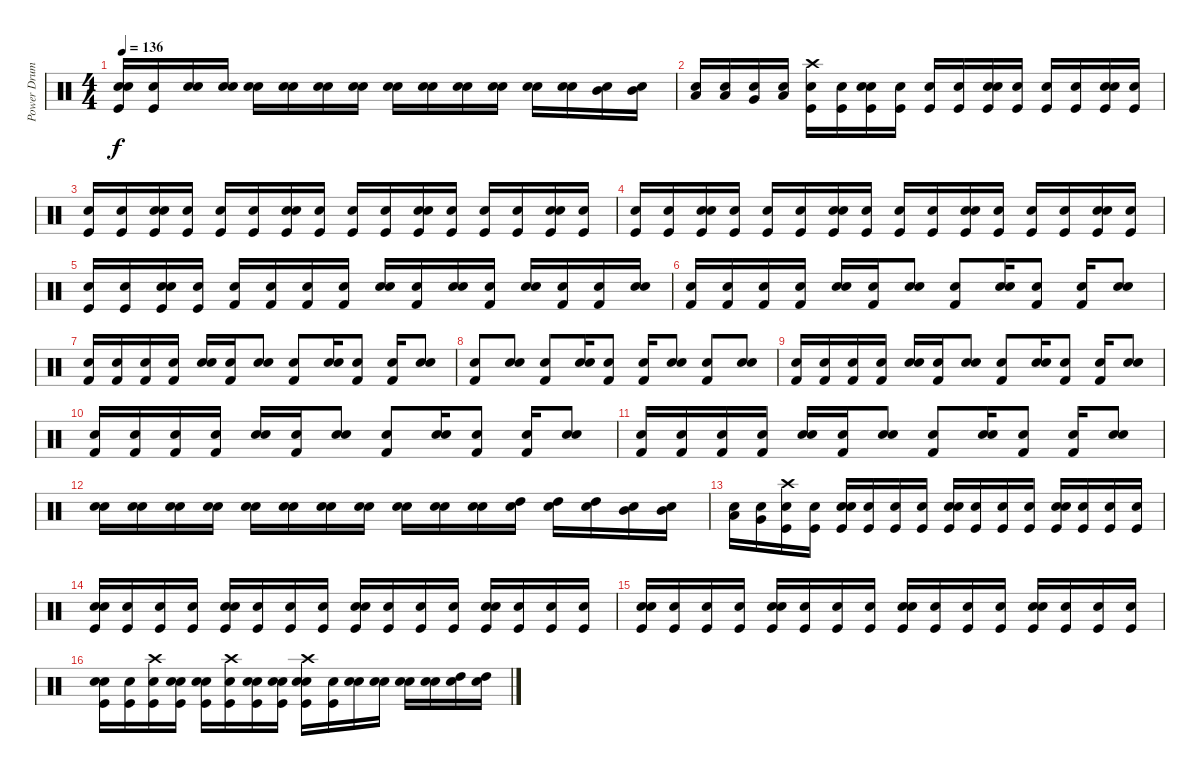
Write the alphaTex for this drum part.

\track ("Power Drums" "Power Drum") {instrument percussion}
\staff {score}
\articulation defaults
\ts (4 4)
\tempo 136
\clef neutral
\ks c
("Snare (hit)" "Kick (hit)" "Snare (hit) 2").16{dy f} ("Snare (hit)" "Kick (hit)").16 ("Snare (hit)" "Snare (hit) 2").16 ("Snare (hit)" "Snare (hit) 2").16 ("Snare (hit)" "Snare (hit) 2").16 ("Snare (hit)" "Snare (hit) 2").16 ("Snare (hit)" "Snare (hit) 2").16 ("Snare (hit)" "Snare (hit) 2").16 ("Snare (hit)" "Snare (hit) 2").16 ("Snare (hit)" "Snare (hit) 2").16 ("Snare (hit)" "Snare (hit) 2").16 ("Snare (hit)" "Snare (hit) 2").16 ("Snare (hit)" "Snare (hit) 2").16 ("Snare (hit)" "Snare (hit) 2").16 ("Snare (hit)" "Mid Tom (hit)").16 ("Snare (hit)" "Mid Tom (hit)").16 |
("Snare (hit)" "Low Tom (hit)").16 ("Snare (hit)" "Low Tom (hit)").16 ("Snare (hit)" "Very Low Tom (hit)").16 ("Snare (hit)" "Low Floor Tom (hit)").16 ("Snare (hit)" "Kick (hit)" "Crash high (hit)").16 ("Snare (hit)" "Kick (hit)").16 ("Snare (hit)" "Kick (hit)" "Snare (hit) 2").16 ("Snare (hit)" "Kick (hit)").16 ("Snare (hit)" "Kick (hit)").16 ("Snare (hit)" "Kick (hit)").16 ("Snare (hit)" "Kick (hit)" "Snare (hit) 2").16 ("Snare (hit)" "Kick (hit)").16 ("Snare (hit)" "Kick (hit)").16 ("Snare (hit)" "Kick (hit)").16 ("Snare (hit)" "Kick (hit)" "Snare (hit) 2").16 ("Snare (hit)" "Kick (hit)").16 |
("Snare (hit)" "Kick (hit)").16 ("Snare (hit)" "Kick (hit)").16 ("Snare (hit)" "Kick (hit)" "Snare (hit) 2").16 ("Snare (hit)" "Kick (hit)").16 ("Snare (hit)" "Kick (hit)").16 ("Snare (hit)" "Kick (hit)").16 ("Snare (hit)" "Kick (hit)" "Snare (hit) 2").16 ("Snare (hit)" "Kick (hit)").16 ("Snare (hit)" "Kick (hit)").16 ("Snare (hit)" "Kick (hit)").16 ("Snare (hit)" "Kick (hit)" "Snare (hit) 2").16 ("Snare (hit)" "Kick (hit)").16 ("Snare (hit)" "Kick (hit)").16 ("Snare (hit)" "Kick (hit)").16 ("Snare (hit)" "Kick (hit)" "Snare (hit) 2").16 ("Snare (hit)" "Kick (hit)").16 |
("Snare (hit)" "Kick (hit)").16 ("Snare (hit)" "Kick (hit)").16 ("Snare (hit)" "Kick (hit)" "Snare (hit) 2").16 ("Snare (hit)" "Kick (hit)").16 ("Snare (hit)" "Kick (hit)").16 ("Snare (hit)" "Kick (hit)").16 ("Snare (hit)" "Kick (hit)" "Snare (hit) 2").16 ("Snare (hit)" "Kick (hit)").16 ("Snare (hit)" "Kick (hit)").16 ("Snare (hit)" "Kick (hit)").16 ("Snare (hit)" "Kick (hit)" "Snare (hit) 2").16 ("Snare (hit)" "Kick (hit)").16 ("Snare (hit)" "Kick (hit)").16 ("Snare (hit)" "Kick (hit)").16 ("Snare (hit)" "Kick (hit)" "Snare (hit) 2").16 ("Snare (hit)" "Kick (hit)").16 |
("Snare (hit)" "Kick (hit)").16 ("Snare (hit)" "Kick (hit)").16 ("Snare (hit)" "Kick (hit)" "Snare (hit) 2").16 ("Snare (hit)" "Kick (hit)").16 ("Snare (hit)" "Kick (hit) 2").16 ("Snare (hit)" "Kick (hit) 2").16 ("Snare (hit)" "Kick (hit) 2").16 ("Snare (hit)" "Kick (hit) 2").16 ("Snare (hit)" "Snare (hit) 2").16 ("Snare (hit)" "Kick (hit) 2").16 ("Snare (hit)" "Snare (hit) 2").16 ("Snare (hit)" "Kick (hit) 2").16 ("Snare (hit)" "Snare (hit) 2").16 ("Snare (hit)" "Kick (hit) 2").16 ("Snare (hit)" "Kick (hit) 2").16 ("Snare (hit)" "Snare (hit) 2").16 |
("Snare (hit)" "Kick (hit) 2").16 ("Snare (hit)" "Kick (hit) 2").16 ("Snare (hit)" "Kick (hit) 2").16 ("Snare (hit)" "Kick (hit) 2").16 ("Snare (hit)" "Snare (hit) 2").16 ("Snare (hit)" "Kick (hit) 2").16 ("Snare (hit)" "Snare (hit) 2").8 ("Snare (hit)" "Kick (hit) 2").8 ("Snare (hit)" "Snare (hit) 2").16 ("Snare (hit)" "Kick (hit) 2").8 ("Snare (hit)" "Kick (hit) 2").16 ("Snare (hit)" "Snare (hit) 2").8 |
("Snare (hit)" "Kick (hit) 2").16 ("Snare (hit)" "Kick (hit) 2").16 ("Snare (hit)" "Kick (hit) 2").16 ("Snare (hit)" "Kick (hit) 2").16 ("Snare (hit)" "Snare (hit) 2").16 ("Snare (hit)" "Kick (hit) 2").16 ("Snare (hit)" "Snare (hit) 2").8 ("Snare (hit)" "Kick (hit) 2").8 ("Snare (hit)" "Snare (hit) 2").16 ("Snare (hit)" "Kick (hit) 2").8 ("Snare (hit)" "Kick (hit) 2").16 ("Snare (hit)" "Snare (hit) 2").8 |
("Snare (hit)" "Kick (hit) 2").8 ("Snare (hit)" "Snare (hit) 2").8 ("Snare (hit)" "Kick (hit) 2").8 ("Snare (hit)" "Snare (hit) 2").16 ("Snare (hit)" "Kick (hit) 2").8 ("Snare (hit)" "Kick (hit) 2").16 ("Snare (hit)" "Snare (hit) 2").8 ("Snare (hit)" "Kick (hit) 2").8 ("Snare (hit)" "Snare (hit) 2").8 |
("Snare (hit)" "Kick (hit) 2").16 ("Snare (hit)" "Kick (hit) 2").16 ("Snare (hit)" "Kick (hit) 2").16 ("Snare (hit)" "Kick (hit) 2").16 ("Snare (hit)" "Snare (hit) 2").16 ("Snare (hit)" "Kick (hit) 2").16 ("Snare (hit)" "Snare (hit) 2").8 ("Snare (hit)" "Kick (hit) 2").8 ("Snare (hit)" "Snare (hit) 2").16 ("Snare (hit)" "Kick (hit) 2").8 ("Snare (hit)" "Kick (hit) 2").16 ("Snare (hit)" "Snare (hit) 2").8 |
("Snare (hit)" "Kick (hit) 2").16 ("Snare (hit)" "Kick (hit) 2").16 ("Snare (hit)" "Kick (hit) 2").16 ("Snare (hit)" "Kick (hit) 2").16 ("Snare (hit)" "Snare (hit) 2").16 ("Snare (hit)" "Kick (hit) 2").16 ("Snare (hit)" "Snare (hit) 2").8 ("Snare (hit)" "Kick (hit) 2").8 ("Snare (hit)" "Snare (hit) 2").16 ("Snare (hit)" "Kick (hit) 2").8 ("Snare (hit)" "Kick (hit) 2").16 ("Snare (hit)" "Snare (hit) 2").8 |
("Snare (hit)" "Kick (hit) 2").16 ("Snare (hit)" "Kick (hit) 2").16 ("Snare (hit)" "Kick (hit) 2").16 ("Snare (hit)" "Kick (hit) 2").16 ("Snare (hit)" "Snare (hit) 2").16 ("Snare (hit)" "Kick (hit) 2").16 ("Snare (hit)" "Snare (hit) 2").8 ("Snare (hit)" "Kick (hit) 2").8 ("Snare (hit)" "Snare (hit) 2").16 ("Snare (hit)" "Kick (hit) 2").8 ("Snare (hit)" "Kick (hit) 2").16 ("Snare (hit)" "Snare (hit) 2").8 |
("Snare (hit)" "Snare (hit) 2").16 ("Snare (hit)" "Snare (hit) 2").16 ("Snare (hit)" "Snare (hit) 2").16 ("Snare (hit)" "Snare (hit) 2").16 ("Snare (hit)" "Snare (hit) 2").16 ("Snare (hit)" "Snare (hit) 2").16 ("Snare (hit)" "Snare (hit) 2").16 ("Snare (hit)" "Snare (hit) 2").16 ("Snare (hit)" "Snare (hit) 2").16 ("Snare (hit)" "Snare (hit) 2").16 ("Snare (hit)" "Snare (hit) 2").16 ("Snare (hit)" "High Tom (hit)").16 ("Snare (hit)" "High Tom (hit)").16 ("Snare (hit)" "High Tom (hit)").16 ("Snare (hit)" "Mid Tom (hit)").16 ("Snare (hit)" "Mid Tom (hit)").16 |
("Snare (hit)" "Low Tom (hit)").16 ("Snare (hit)" "Very Low Tom (hit)").16 ("Snare (hit)" "Kick (hit)" "Crash high (hit)").16 ("Snare (hit)" "Kick (hit)").16 ("Snare (hit)" "Kick (hit)" "Snare (hit) 2").16 ("Snare (hit)" "Kick (hit)").16 ("Snare (hit)" "Kick (hit)").16 ("Snare (hit)" "Kick (hit)").16 ("Snare (hit)" "Kick (hit)" "Snare (hit) 2").16 ("Snare (hit)" "Kick (hit)").16 ("Snare (hit)" "Kick (hit)").16 ("Snare (hit)" "Kick (hit)").16 ("Snare (hit)" "Kick (hit)" "Snare (hit) 2").16 ("Snare (hit)" "Kick (hit)").16 ("Snare (hit)" "Kick (hit)").16 ("Snare (hit)" "Kick (hit)").16 |
("Snare (hit)" "Kick (hit)" "Snare (hit) 2").16 ("Snare (hit)" "Kick (hit)").16 ("Snare (hit)" "Kick (hit)").16 ("Snare (hit)" "Kick (hit)").16 ("Snare (hit)" "Kick (hit)" "Snare (hit) 2").16 ("Snare (hit)" "Kick (hit)").16 ("Snare (hit)" "Kick (hit)").16 ("Snare (hit)" "Kick (hit)").16 ("Snare (hit)" "Kick (hit)" "Snare (hit) 2").16 ("Snare (hit)" "Kick (hit)").16 ("Snare (hit)" "Kick (hit)").16 ("Snare (hit)" "Kick (hit)").16 ("Snare (hit)" "Kick (hit)" "Snare (hit) 2").16 ("Snare (hit)" "Kick (hit)").16 ("Snare (hit)" "Kick (hit)").16 ("Snare (hit)" "Kick (hit)").16 |
("Snare (hit)" "Kick (hit)" "Snare (hit) 2").16 ("Snare (hit)" "Kick (hit)").16 ("Snare (hit)" "Kick (hit)").16 ("Snare (hit)" "Kick (hit)").16 ("Snare (hit)" "Kick (hit)" "Snare (hit) 2").16 ("Snare (hit)" "Kick (hit)").16 ("Snare (hit)" "Kick (hit)").16 ("Snare (hit)" "Kick (hit)").16 ("Snare (hit)" "Kick (hit)" "Snare (hit) 2").16 ("Snare (hit)" "Kick (hit)").16 ("Snare (hit)" "Kick (hit)").16 ("Snare (hit)" "Kick (hit)").16 ("Snare (hit)" "Kick (hit)" "Snare (hit) 2").16 ("Snare (hit)" "Kick (hit)").16 ("Snare (hit)" "Kick (hit)").16 ("Snare (hit)" "Kick (hit)").16 |
("Snare (hit)" "Kick (hit)" "Snare (hit) 2").16 ("Snare (hit)" "Kick (hit)").16 ("Snare (hit)" "Kick (hit)" "Crash high (hit)").16 ("Snare (hit)" "Kick (hit)" "Snare (hit) 2").16 ("Snare (hit)" "Kick (hit)" "Snare (hit) 2").16 ("Snare (hit)" "Kick (hit)" "Crash high (hit)").16 ("Snare (hit)" "Kick (hit)" "Snare (hit) 2").16 ("Snare (hit)" "Kick (hit)" "Snare (hit) 2").16 ("Snare (hit)" "Kick (hit)" "Snare (hit) 2" "Crash high (hit)").16 ("Snare (hit)" "Kick (hit)").16 ("Snare (hit)" "Snare (hit) 2").16 ("Snare (hit)" "Snare (hit) 2").16 ("Snare (hit)" "Snare (hit) 2").16 ("Snare (hit)" "Snare (hit) 2").16 ("Snare (hit)" "High Tom (hit)").16 ("Snare (hit)" "High Tom (hit)").16
